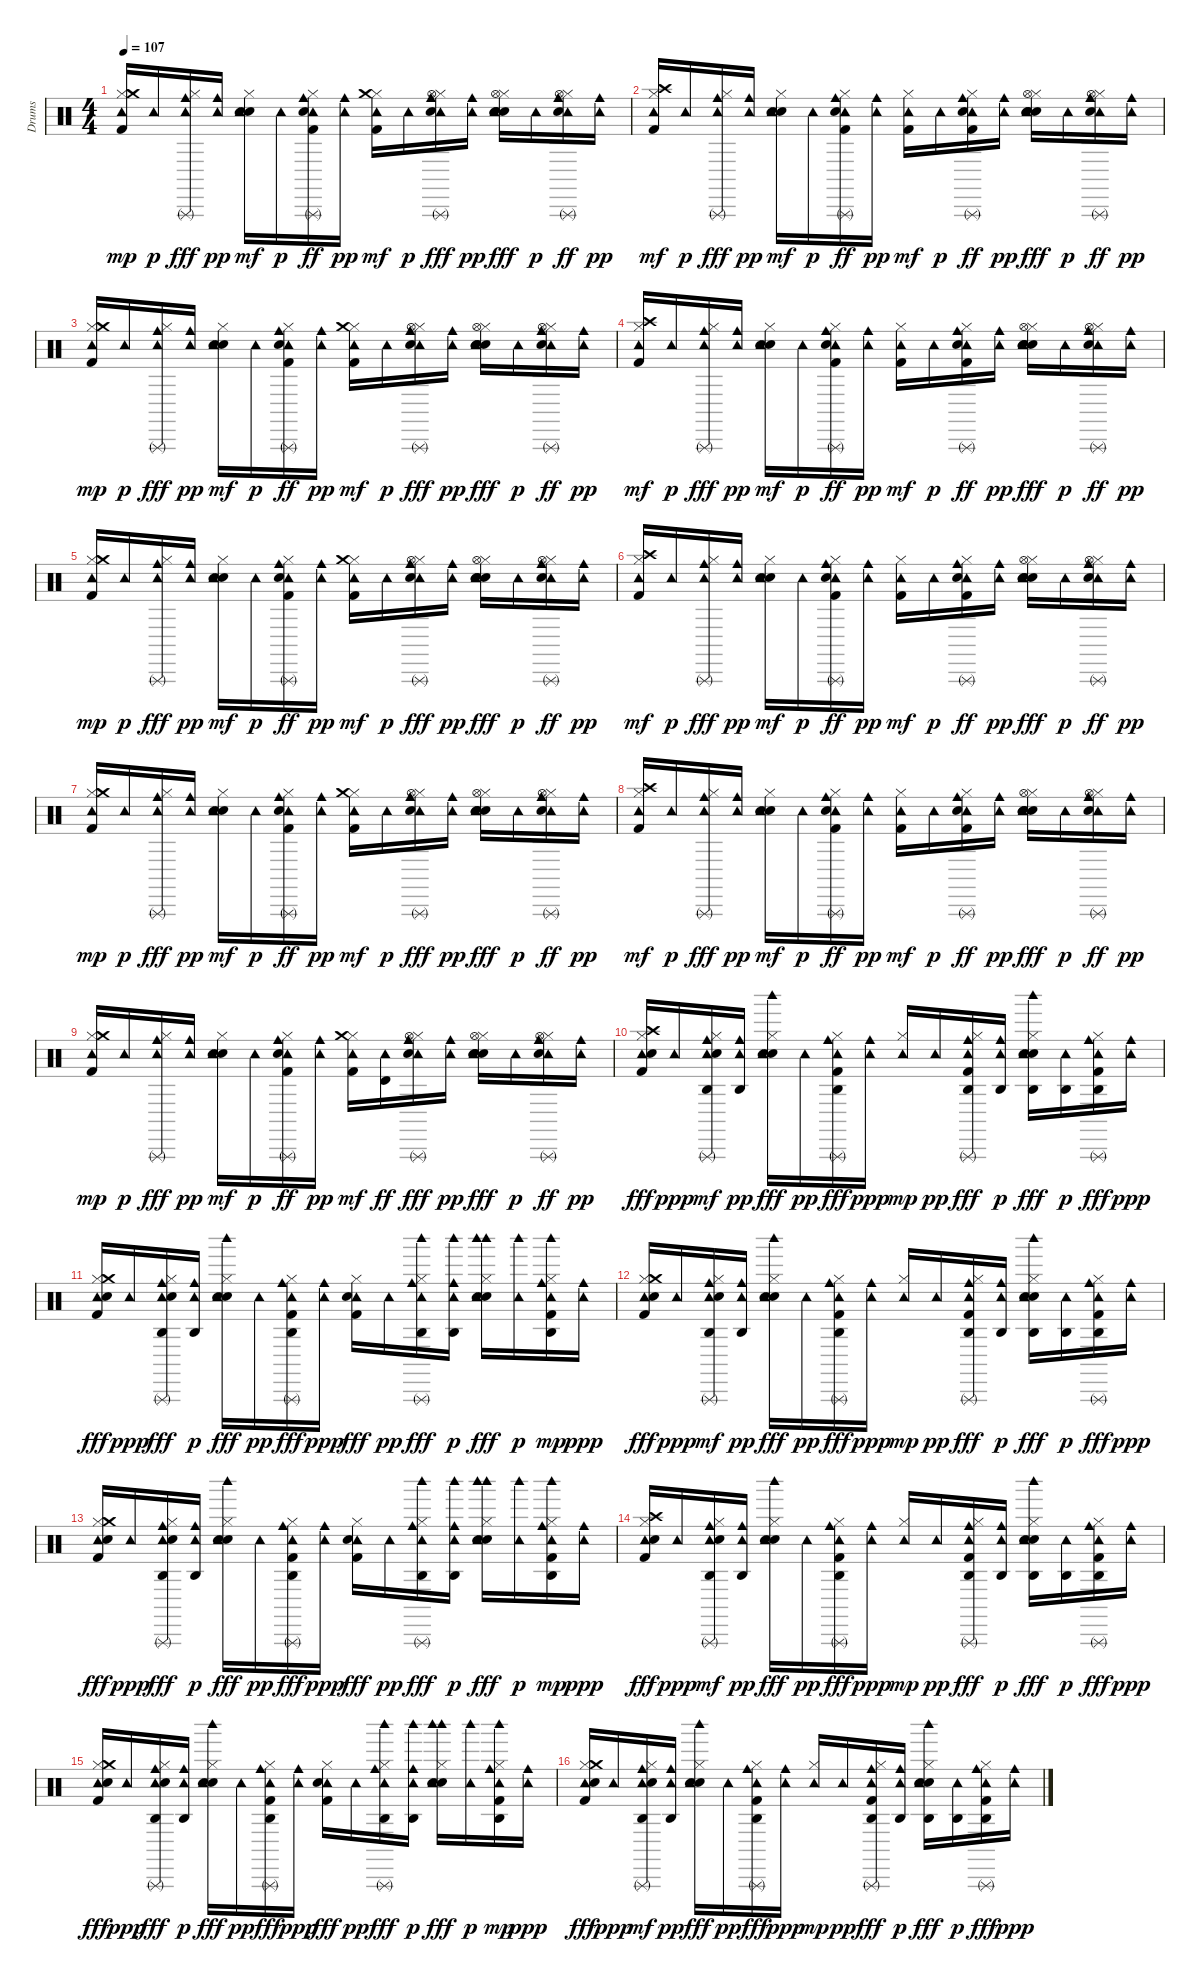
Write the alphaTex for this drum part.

\track ("Drums" "Drums") {instrument percussion}
\staff {score}
\articulation defaults
\ts (4 4)
\tempo 107
\clef neutral
\ks c
("Kick (hit) 2" "Hi-Hat (closed)" "Tambourine (hit)" "Crash medium (hit)").16{dy mp} "Tambourine (hit)".16{dy p} ("Hi-Hat (closed)" "Tambourine (hit)" "Cowbell medium (hit)" "Triangle (rnute)").16{dy fff} ("Tambourine (hit)" "Cowbell medium (hit)").16{dy pp} ("Hand Clap (hit)" "Electric Snare (hit)" "Hi-Hat (closed)" "Tambourine (hit)").16{dy mf} "Tambourine (hit)".16{dy p} ("Kick (hit) 2" "Hi-Hat (closed)" "Tambourine (hit)" "Cowbell medium (hit)" "Triangle (rnute)" "Metronome (bell)").16{dy ff} ("Tambourine (hit)" "Cowbell medium (hit)").16{dy pp} ("Kick (hit) 2" "Hi-Hat (closed)" "Tambourine (hit)" "Crash medium (hit)").16{dy mf} "Tambourine (hit)".16{dy p} ("Hi-Hat (closed)" "Tambourine (hit)" "Cowbell medium (hit)" "Triangle (rnute)" "Metronome (bell)" "Hi-Hat (open)").16{dy fff} ("Tambourine (hit)" "Cowbell medium (hit)").16{dy pp} ("Hand Clap (hit)" "Electric Snare (hit)" "Hi-Hat (closed)" "Tambourine (hit)" "Metronome (bell)" "Hi-Hat (open)").16{dy fff} "Tambourine (hit)".16{dy p} ("Hi-Hat (closed)" "Tambourine (hit)" "Cowbell medium (hit)" "Triangle (rnute)" "Metronome (bell)" "Hi-Hat (open)").16{dy ff} ("Tambourine (hit)" "Cowbell medium (hit)").16{dy pp} |
("Kick (hit) 2" "Hi-Hat (closed)" "Crash high (hit)" "Tambourine (hit)").16{dy mf} "Tambourine (hit)".16{dy p} ("Hi-Hat (closed)" "Tambourine (hit)" "Cowbell medium (hit)" "Triangle (rnute)").16{dy fff} ("Tambourine (hit)" "Cowbell medium (hit)").16{dy pp} ("Hand Clap (hit)" "Electric Snare (hit)" "Hi-Hat (closed)" "Tambourine (hit)").16{dy mf} "Tambourine (hit)".16{dy p} ("Kick (hit) 2" "Hi-Hat (closed)" "Tambourine (hit)" "Cowbell medium (hit)" "Triangle (rnute)" "Metronome (bell)").16{dy ff} ("Tambourine (hit)" "Cowbell medium (hit)").16{dy pp} ("Kick (hit) 2" "Hi-Hat (closed)" "Tambourine (hit)").16{dy mf} "Tambourine (hit)".16{dy p} ("Kick (hit) 2" "Hi-Hat (closed)" "Tambourine (hit)" "Cowbell medium (hit)" "Triangle (rnute)" "Metronome (bell)").16{dy ff} ("Tambourine (hit)" "Cowbell medium (hit)").16{dy pp} ("Hand Clap (hit)" "Electric Snare (hit)" "Hi-Hat (closed)" "Tambourine (hit)" "Metronome (bell)" "Hi-Hat (open)").16{dy fff} "Tambourine (hit)".16{dy p} ("Hi-Hat (closed)" "Tambourine (hit)" "Cowbell medium (hit)" "Triangle (rnute)" "Metronome (bell)" "Hi-Hat (open)").16{dy ff} ("Tambourine (hit)" "Cowbell medium (hit)").16{dy pp} |
("Kick (hit) 2" "Hi-Hat (closed)" "Tambourine (hit)" "Crash medium (hit)").16{dy mp} "Tambourine (hit)".16{dy p} ("Hi-Hat (closed)" "Tambourine (hit)" "Cowbell medium (hit)" "Triangle (rnute)").16{dy fff} ("Tambourine (hit)" "Cowbell medium (hit)").16{dy pp} ("Hand Clap (hit)" "Electric Snare (hit)" "Hi-Hat (closed)" "Tambourine (hit)").16{dy mf} "Tambourine (hit)".16{dy p} ("Kick (hit) 2" "Hi-Hat (closed)" "Tambourine (hit)" "Cowbell medium (hit)" "Triangle (rnute)" "Metronome (bell)").16{dy ff} ("Tambourine (hit)" "Cowbell medium (hit)").16{dy pp} ("Kick (hit) 2" "Hi-Hat (closed)" "Tambourine (hit)" "Crash medium (hit)").16{dy mf} "Tambourine (hit)".16{dy p} ("Hi-Hat (closed)" "Tambourine (hit)" "Cowbell medium (hit)" "Triangle (rnute)" "Metronome (bell)" "Hi-Hat (open)").16{dy fff} ("Tambourine (hit)" "Cowbell medium (hit)").16{dy pp} ("Hand Clap (hit)" "Electric Snare (hit)" "Hi-Hat (closed)" "Tambourine (hit)" "Metronome (bell)" "Hi-Hat (open)").16{dy fff} "Tambourine (hit)".16{dy p} ("Hi-Hat (closed)" "Tambourine (hit)" "Cowbell medium (hit)" "Triangle (rnute)" "Metronome (bell)" "Hi-Hat (open)").16{dy ff} ("Tambourine (hit)" "Cowbell medium (hit)").16{dy pp} |
("Kick (hit) 2" "Hi-Hat (closed)" "Crash high (hit)" "Tambourine (hit)").16{dy mf} "Tambourine (hit)".16{dy p} ("Hi-Hat (closed)" "Tambourine (hit)" "Cowbell medium (hit)" "Triangle (rnute)").16{dy fff} ("Tambourine (hit)" "Cowbell medium (hit)").16{dy pp} ("Hand Clap (hit)" "Electric Snare (hit)" "Hi-Hat (closed)" "Tambourine (hit)").16{dy mf} "Tambourine (hit)".16{dy p} ("Kick (hit) 2" "Hi-Hat (closed)" "Tambourine (hit)" "Cowbell medium (hit)" "Triangle (rnute)" "Metronome (bell)").16{dy ff} ("Tambourine (hit)" "Cowbell medium (hit)").16{dy pp} ("Kick (hit) 2" "Hi-Hat (closed)" "Tambourine (hit)").16{dy mf} "Tambourine (hit)".16{dy p} ("Kick (hit) 2" "Hi-Hat (closed)" "Tambourine (hit)" "Cowbell medium (hit)" "Triangle (rnute)" "Metronome (bell)").16{dy ff} ("Tambourine (hit)" "Cowbell medium (hit)").16{dy pp} ("Hand Clap (hit)" "Electric Snare (hit)" "Hi-Hat (closed)" "Tambourine (hit)" "Metronome (bell)" "Hi-Hat (open)").16{dy fff} "Tambourine (hit)".16{dy p} ("Hi-Hat (closed)" "Tambourine (hit)" "Cowbell medium (hit)" "Triangle (rnute)" "Metronome (bell)" "Hi-Hat (open)").16{dy ff} ("Tambourine (hit)" "Cowbell medium (hit)").16{dy pp} |
("Kick (hit) 2" "Hi-Hat (closed)" "Tambourine (hit)" "Crash medium (hit)").16{dy mp} "Tambourine (hit)".16{dy p} ("Hi-Hat (closed)" "Tambourine (hit)" "Cowbell medium (hit)" "Triangle (rnute)").16{dy fff} ("Tambourine (hit)" "Cowbell medium (hit)").16{dy pp} ("Hand Clap (hit)" "Electric Snare (hit)" "Hi-Hat (closed)" "Tambourine (hit)").16{dy mf} "Tambourine (hit)".16{dy p} ("Kick (hit) 2" "Hi-Hat (closed)" "Tambourine (hit)" "Cowbell medium (hit)" "Triangle (rnute)" "Metronome (bell)").16{dy ff} ("Tambourine (hit)" "Cowbell medium (hit)").16{dy pp} ("Kick (hit) 2" "Hi-Hat (closed)" "Tambourine (hit)" "Crash medium (hit)").16{dy mf} "Tambourine (hit)".16{dy p} ("Hi-Hat (closed)" "Tambourine (hit)" "Cowbell medium (hit)" "Triangle (rnute)" "Metronome (bell)" "Hi-Hat (open)").16{dy fff} ("Tambourine (hit)" "Cowbell medium (hit)").16{dy pp} ("Hand Clap (hit)" "Electric Snare (hit)" "Hi-Hat (closed)" "Tambourine (hit)" "Metronome (bell)" "Hi-Hat (open)").16{dy fff} "Tambourine (hit)".16{dy p} ("Hi-Hat (closed)" "Tambourine (hit)" "Cowbell medium (hit)" "Triangle (rnute)" "Metronome (bell)" "Hi-Hat (open)").16{dy ff} ("Tambourine (hit)" "Cowbell medium (hit)").16{dy pp} |
("Kick (hit) 2" "Hi-Hat (closed)" "Crash high (hit)" "Tambourine (hit)").16{dy mf} "Tambourine (hit)".16{dy p} ("Hi-Hat (closed)" "Tambourine (hit)" "Cowbell medium (hit)" "Triangle (rnute)").16{dy fff} ("Tambourine (hit)" "Cowbell medium (hit)").16{dy pp} ("Hand Clap (hit)" "Electric Snare (hit)" "Hi-Hat (closed)" "Tambourine (hit)").16{dy mf} "Tambourine (hit)".16{dy p} ("Kick (hit) 2" "Hi-Hat (closed)" "Tambourine (hit)" "Cowbell medium (hit)" "Triangle (rnute)" "Metronome (bell)").16{dy ff} ("Tambourine (hit)" "Cowbell medium (hit)").16{dy pp} ("Kick (hit) 2" "Hi-Hat (closed)" "Tambourine (hit)").16{dy mf} "Tambourine (hit)".16{dy p} ("Kick (hit) 2" "Hi-Hat (closed)" "Tambourine (hit)" "Cowbell medium (hit)" "Triangle (rnute)" "Metronome (bell)").16{dy ff} ("Tambourine (hit)" "Cowbell medium (hit)").16{dy pp} ("Hand Clap (hit)" "Electric Snare (hit)" "Hi-Hat (closed)" "Tambourine (hit)" "Metronome (bell)" "Hi-Hat (open)").16{dy fff} "Tambourine (hit)".16{dy p} ("Hi-Hat (closed)" "Tambourine (hit)" "Cowbell medium (hit)" "Triangle (rnute)" "Metronome (bell)" "Hi-Hat (open)").16{dy ff} ("Tambourine (hit)" "Cowbell medium (hit)").16{dy pp} |
("Kick (hit) 2" "Hi-Hat (closed)" "Tambourine (hit)" "Crash medium (hit)").16{dy mp} "Tambourine (hit)".16{dy p} ("Hi-Hat (closed)" "Tambourine (hit)" "Cowbell medium (hit)" "Triangle (rnute)").16{dy fff} ("Tambourine (hit)" "Cowbell medium (hit)").16{dy pp} ("Hand Clap (hit)" "Electric Snare (hit)" "Hi-Hat (closed)" "Tambourine (hit)").16{dy mf} "Tambourine (hit)".16{dy p} ("Kick (hit) 2" "Hi-Hat (closed)" "Tambourine (hit)" "Cowbell medium (hit)" "Triangle (rnute)" "Metronome (bell)").16{dy ff} ("Tambourine (hit)" "Cowbell medium (hit)").16{dy pp} ("Kick (hit) 2" "Hi-Hat (closed)" "Tambourine (hit)" "Crash medium (hit)").16{dy mf} "Tambourine (hit)".16{dy p} ("Hi-Hat (closed)" "Tambourine (hit)" "Cowbell medium (hit)" "Triangle (rnute)" "Metronome (bell)" "Hi-Hat (open)").16{dy fff} ("Tambourine (hit)" "Cowbell medium (hit)").16{dy pp} ("Hand Clap (hit)" "Electric Snare (hit)" "Hi-Hat (closed)" "Tambourine (hit)" "Metronome (bell)" "Hi-Hat (open)").16{dy fff} "Tambourine (hit)".16{dy p} ("Hi-Hat (closed)" "Tambourine (hit)" "Cowbell medium (hit)" "Triangle (rnute)" "Metronome (bell)" "Hi-Hat (open)").16{dy ff} ("Tambourine (hit)" "Cowbell medium (hit)").16{dy pp} |
("Kick (hit) 2" "Hi-Hat (closed)" "Crash high (hit)" "Tambourine (hit)").16{dy mf} "Tambourine (hit)".16{dy p} ("Hi-Hat (closed)" "Tambourine (hit)" "Cowbell medium (hit)" "Triangle (rnute)").16{dy fff} ("Tambourine (hit)" "Cowbell medium (hit)").16{dy pp} ("Hand Clap (hit)" "Electric Snare (hit)" "Hi-Hat (closed)" "Tambourine (hit)").16{dy mf} "Tambourine (hit)".16{dy p} ("Kick (hit) 2" "Hi-Hat (closed)" "Tambourine (hit)" "Cowbell medium (hit)" "Triangle (rnute)" "Metronome (bell)").16{dy ff} ("Tambourine (hit)" "Cowbell medium (hit)").16{dy pp} ("Kick (hit) 2" "Hi-Hat (closed)" "Tambourine (hit)").16{dy mf} "Tambourine (hit)".16{dy p} ("Kick (hit) 2" "Hi-Hat (closed)" "Tambourine (hit)" "Cowbell medium (hit)" "Triangle (rnute)" "Metronome (bell)").16{dy ff} ("Tambourine (hit)" "Cowbell medium (hit)").16{dy pp} ("Hand Clap (hit)" "Electric Snare (hit)" "Hi-Hat (closed)" "Tambourine (hit)" "Metronome (bell)" "Hi-Hat (open)").16{dy fff} "Tambourine (hit)".16{dy p} ("Hi-Hat (closed)" "Tambourine (hit)" "Cowbell medium (hit)" "Triangle (rnute)" "Metronome (bell)" "Hi-Hat (open)").16{dy ff} ("Tambourine (hit)" "Cowbell medium (hit)").16{dy pp} |
("Kick (hit) 2" "Hi-Hat (closed)" "Tambourine (hit)" "Crash medium (hit)").16{dy mp} "Tambourine (hit)".16{dy p} ("Hi-Hat (closed)" "Tambourine (hit)" "Cowbell medium (hit)" "Triangle (rnute)").16{dy fff} ("Tambourine (hit)" "Cowbell medium (hit)").16{dy pp} ("Hand Clap (hit)" "Electric Snare (hit)" "Hi-Hat (closed)" "Tambourine (hit)").16{dy mf} "Tambourine (hit)".16{dy p} ("Kick (hit) 2" "Hi-Hat (closed)" "Tambourine (hit)" "Cowbell medium (hit)" "Triangle (rnute)" "Metronome (bell)").16{dy ff} ("Tambourine (hit)" "Cowbell medium (hit)").16{dy pp} ("Kick (hit) 2" "Hi-Hat (closed)" "Tambourine (hit)" "Crash medium (hit)").16{dy mf} ("Tambourine (hit)" "Timbale high (hit)").16{dy ff} ("Hi-Hat (closed)" "Tambourine (hit)" "Cowbell medium (hit)" "Triangle (rnute)" "Metronome (bell)" "Hi-Hat (open)").16{dy fff} ("Tambourine (hit)" "Cowbell medium (hit)").16{dy pp} ("Hand Clap (hit)" "Electric Snare (hit)" "Hi-Hat (closed)" "Tambourine (hit)" "Metronome (bell)" "Hi-Hat (open)").16{dy fff} "Tambourine (hit)".16{dy p} ("Hi-Hat (closed)" "Tambourine (hit)" "Cowbell medium (hit)" "Triangle (rnute)" "Metronome (bell)" "Hi-Hat (open)").16{dy ff} ("Tambourine (hit)" "Cowbell medium (hit)").16{dy pp} |
("Kick (hit) 2" "Hi-Hat (closed)" "Crash high (hit)" "Tambourine (hit)" "Snare (hit)").16{dy fff} "Tambourine (hit)".16{dy ppp} ("Hi-Hat (closed)" "Tambourine (hit)" "Cowbell medium (hit)" "Agogo high (hit)" "Triangle (rnute)" "Snare (hit)").16{dy mf} ("Tambourine (hit)" "Cowbell medium (hit)" "Agogo high (hit)").16{dy pp} ("Hand Clap (hit)" "Electric Snare (hit)" "Hi-Hat (closed)" "Tambourine (hit)" "Woodblock high (hit)").16{dy fff} "Tambourine (hit)".16{dy pp} ("Kick (hit) 2" "Hi-Hat (closed)" "Tambourine (hit)" "Cowbell medium (hit)" "Agogo high (hit)" "Triangle (rnute)").16{dy fff} ("Tambourine (hit)" "Cowbell medium (hit)").16{dy ppp} ("Hi-Hat (closed)" "Tambourine (hit)").16{dy mp} "Tambourine (hit)".16{dy pp} ("Kick (hit) 2" "Hi-Hat (closed)" "Tambourine (hit)" "Cowbell medium (hit)" "Agogo high (hit)" "Triangle (rnute)").16{dy fff} ("Tambourine (hit)" "Cowbell medium (hit)" "Agogo high (hit)").16{dy p} ("Hand Clap (hit)" "Electric Snare (hit)" "Hi-Hat (closed)" "Tambourine (hit)" "Agogo high (hit)" "Woodblock high (hit)").16{dy fff} ("Tambourine (hit)" "Agogo high (hit)").16{dy p} ("Kick (hit) 2" "Hi-Hat (closed)" "Tambourine (hit)" "Cowbell medium (hit)" "Agogo high (hit)" "Triangle (rnute)").16{dy fff} ("Tambourine (hit)" "Cowbell medium (hit)").16{dy ppp} |
("Kick (hit) 2" "Hi-Hat (closed)" "Tambourine (hit)" "Crash medium (hit)" "Snare (hit)").16{dy fff} "Tambourine (hit)".16{dy ppp} ("Hi-Hat (closed)" "Tambourine (hit)" "Cowbell medium (hit)" "Agogo high (hit)" "Triangle (rnute)" "Snare (hit)").16{dy fff} ("Tambourine (hit)" "Cowbell medium (hit)" "Agogo high (hit)").16{dy p} ("Hand Clap (hit)" "Electric Snare (hit)" "Hi-Hat (closed)" "Tambourine (hit)" "Woodblock high (hit)").16{dy fff} "Tambourine (hit)".16{dy pp} ("Kick (hit) 2" "Hi-Hat (closed)" "Tambourine (hit)" "Cowbell medium (hit)" "Agogo high (hit)" "Triangle (rnute)").16{dy fff} ("Tambourine (hit)" "Cowbell medium (hit)").16{dy ppp} ("Kick (hit) 2" "Hi-Hat (closed)" "Tambourine (hit)" "Snare (hit)").16{dy fff} "Tambourine (hit)".16{dy pp} ("Hi-Hat (closed)" "Tambourine (hit)" "Cowbell medium (hit)" "Agogo high (hit)" "Woodblock high (hit)" "Triangle (rnute)").16{dy fff} ("Tambourine (hit)" "Cowbell medium (hit)" "Agogo high (hit)" "Woodblock high (hit)").16{dy p} ("Hand Clap (hit)" "Electric Snare (hit)" "Hi-Hat (closed)" "Tambourine (hit)" "Woodblock high (hit)" "Woodblock high (hit)").16{dy fff} ("Tambourine (hit)" "Woodblock high (hit)").16{dy p} ("Kick (hit) 2" "Hi-Hat (closed)" "Tambourine (hit)" "Cowbell medium (hit)" "Agogo high (hit)" "Woodblock high (hit)").16{dy mp} ("Tambourine (hit)" "Cowbell medium (hit)").16{dy ppp} |
("Kick (hit) 2" "Hi-Hat (closed)" "Tambourine (hit)" "Crash medium (hit)" "Snare (hit)").16{dy fff} "Tambourine (hit)".16{dy ppp} ("Hi-Hat (closed)" "Tambourine (hit)" "Cowbell medium (hit)" "Agogo high (hit)" "Triangle (rnute)" "Snare (hit)").16{dy mf} ("Tambourine (hit)" "Cowbell medium (hit)" "Agogo high (hit)").16{dy pp} ("Hand Clap (hit)" "Electric Snare (hit)" "Hi-Hat (closed)" "Tambourine (hit)" "Woodblock high (hit)").16{dy fff} "Tambourine (hit)".16{dy pp} ("Kick (hit) 2" "Hi-Hat (closed)" "Tambourine (hit)" "Cowbell medium (hit)" "Agogo high (hit)" "Triangle (rnute)").16{dy fff} ("Tambourine (hit)" "Cowbell medium (hit)").16{dy ppp} ("Hi-Hat (closed)" "Tambourine (hit)").16{dy mp} "Tambourine (hit)".16{dy pp} ("Kick (hit) 2" "Hi-Hat (closed)" "Tambourine (hit)" "Cowbell medium (hit)" "Agogo high (hit)" "Triangle (rnute)").16{dy fff} ("Tambourine (hit)" "Cowbell medium (hit)" "Agogo high (hit)").16{dy p} ("Hand Clap (hit)" "Electric Snare (hit)" "Hi-Hat (closed)" "Tambourine (hit)" "Agogo high (hit)" "Woodblock high (hit)").16{dy fff} ("Tambourine (hit)" "Agogo high (hit)").16{dy p} ("Kick (hit) 2" "Hi-Hat (closed)" "Tambourine (hit)" "Cowbell medium (hit)" "Agogo high (hit)" "Triangle (rnute)").16{dy fff} ("Tambourine (hit)" "Cowbell medium (hit)").16{dy ppp} |
("Kick (hit) 2" "Hi-Hat (closed)" "Tambourine (hit)" "Crash medium (hit)" "Snare (hit)").16{dy fff} "Tambourine (hit)".16{dy ppp} ("Hi-Hat (closed)" "Tambourine (hit)" "Cowbell medium (hit)" "Agogo high (hit)" "Triangle (rnute)" "Snare (hit)").16{dy fff} ("Tambourine (hit)" "Cowbell medium (hit)" "Agogo high (hit)").16{dy p} ("Hand Clap (hit)" "Electric Snare (hit)" "Hi-Hat (closed)" "Tambourine (hit)" "Woodblock high (hit)").16{dy fff} "Tambourine (hit)".16{dy pp} ("Kick (hit) 2" "Hi-Hat (closed)" "Tambourine (hit)" "Cowbell medium (hit)" "Agogo high (hit)" "Triangle (rnute)").16{dy fff} ("Tambourine (hit)" "Cowbell medium (hit)").16{dy ppp} ("Kick (hit) 2" "Hi-Hat (closed)" "Tambourine (hit)" "Snare (hit)").16{dy fff} "Tambourine (hit)".16{dy pp} ("Hi-Hat (closed)" "Tambourine (hit)" "Cowbell medium (hit)" "Agogo high (hit)" "Woodblock high (hit)" "Triangle (rnute)").16{dy fff} ("Tambourine (hit)" "Cowbell medium (hit)" "Agogo high (hit)" "Woodblock high (hit)").16{dy p} ("Hand Clap (hit)" "Electric Snare (hit)" "Hi-Hat (closed)" "Tambourine (hit)" "Woodblock high (hit)" "Woodblock high (hit)").16{dy fff} ("Tambourine (hit)" "Woodblock high (hit)").16{dy p} ("Kick (hit) 2" "Hi-Hat (closed)" "Tambourine (hit)" "Cowbell medium (hit)" "Agogo high (hit)" "Woodblock high (hit)").16{dy mp} ("Tambourine (hit)" "Cowbell medium (hit)").16{dy ppp} |
("Kick (hit) 2" "Hi-Hat (closed)" "Crash high (hit)" "Tambourine (hit)" "Snare (hit)").16{dy fff} "Tambourine (hit)".16{dy ppp} ("Hi-Hat (closed)" "Tambourine (hit)" "Cowbell medium (hit)" "Agogo high (hit)" "Triangle (rnute)" "Snare (hit)").16{dy mf} ("Tambourine (hit)" "Cowbell medium (hit)" "Agogo high (hit)").16{dy pp} ("Hand Clap (hit)" "Electric Snare (hit)" "Hi-Hat (closed)" "Tambourine (hit)" "Woodblock high (hit)").16{dy fff} "Tambourine (hit)".16{dy pp} ("Kick (hit) 2" "Hi-Hat (closed)" "Tambourine (hit)" "Cowbell medium (hit)" "Agogo high (hit)" "Triangle (rnute)").16{dy fff} ("Tambourine (hit)" "Cowbell medium (hit)").16{dy ppp} ("Hi-Hat (closed)" "Tambourine (hit)").16{dy mp} "Tambourine (hit)".16{dy pp} ("Kick (hit) 2" "Hi-Hat (closed)" "Tambourine (hit)" "Cowbell medium (hit)" "Agogo high (hit)" "Triangle (rnute)").16{dy fff} ("Tambourine (hit)" "Cowbell medium (hit)" "Agogo high (hit)").16{dy p} ("Hand Clap (hit)" "Electric Snare (hit)" "Hi-Hat (closed)" "Tambourine (hit)" "Agogo high (hit)" "Woodblock high (hit)").16{dy fff} ("Tambourine (hit)" "Agogo high (hit)").16{dy p} ("Kick (hit) 2" "Hi-Hat (closed)" "Tambourine (hit)" "Cowbell medium (hit)" "Agogo high (hit)" "Triangle (rnute)").16{dy fff} ("Tambourine (hit)" "Cowbell medium (hit)").16{dy ppp} |
("Kick (hit) 2" "Hi-Hat (closed)" "Tambourine (hit)" "Crash medium (hit)" "Snare (hit)").16{dy fff} "Tambourine (hit)".16{dy ppp} ("Hi-Hat (closed)" "Tambourine (hit)" "Cowbell medium (hit)" "Agogo high (hit)" "Triangle (rnute)" "Snare (hit)").16{dy fff} ("Tambourine (hit)" "Cowbell medium (hit)" "Agogo high (hit)").16{dy p} ("Hand Clap (hit)" "Electric Snare (hit)" "Hi-Hat (closed)" "Tambourine (hit)" "Woodblock high (hit)").16{dy fff} "Tambourine (hit)".16{dy pp} ("Kick (hit) 2" "Hi-Hat (closed)" "Tambourine (hit)" "Cowbell medium (hit)" "Agogo high (hit)" "Triangle (rnute)").16{dy fff} ("Tambourine (hit)" "Cowbell medium (hit)").16{dy ppp} ("Kick (hit) 2" "Hi-Hat (closed)" "Tambourine (hit)" "Snare (hit)").16{dy fff} "Tambourine (hit)".16{dy pp} ("Hi-Hat (closed)" "Tambourine (hit)" "Cowbell medium (hit)" "Agogo high (hit)" "Woodblock high (hit)" "Triangle (rnute)").16{dy fff} ("Tambourine (hit)" "Cowbell medium (hit)" "Agogo high (hit)" "Woodblock high (hit)").16{dy p} ("Hand Clap (hit)" "Electric Snare (hit)" "Hi-Hat (closed)" "Tambourine (hit)" "Woodblock high (hit)" "Woodblock high (hit)").16{dy fff} ("Tambourine (hit)" "Woodblock high (hit)").16{dy p} ("Kick (hit) 2" "Hi-Hat (closed)" "Tambourine (hit)" "Cowbell medium (hit)" "Agogo high (hit)" "Woodblock high (hit)").16{dy mp} ("Tambourine (hit)" "Cowbell medium (hit)").16{dy ppp} |
("Kick (hit) 2" "Hi-Hat (closed)" "Tambourine (hit)" "Crash medium (hit)" "Snare (hit)").16{dy fff} "Tambourine (hit)".16{dy ppp} ("Hi-Hat (closed)" "Tambourine (hit)" "Cowbell medium (hit)" "Agogo high (hit)" "Triangle (rnute)" "Snare (hit)").16{dy mf} ("Tambourine (hit)" "Cowbell medium (hit)" "Agogo high (hit)").16{dy pp} ("Hand Clap (hit)" "Electric Snare (hit)" "Hi-Hat (closed)" "Tambourine (hit)" "Woodblock high (hit)").16{dy fff} "Tambourine (hit)".16{dy pp} ("Kick (hit) 2" "Hi-Hat (closed)" "Tambourine (hit)" "Cowbell medium (hit)" "Agogo high (hit)" "Triangle (rnute)").16{dy fff} ("Tambourine (hit)" "Cowbell medium (hit)").16{dy ppp} ("Hi-Hat (closed)" "Tambourine (hit)").16{dy mp} "Tambourine (hit)".16{dy pp} ("Kick (hit) 2" "Hi-Hat (closed)" "Tambourine (hit)" "Cowbell medium (hit)" "Agogo high (hit)" "Triangle (rnute)").16{dy fff} ("Tambourine (hit)" "Cowbell medium (hit)" "Agogo high (hit)").16{dy p} ("Hand Clap (hit)" "Electric Snare (hit)" "Hi-Hat (closed)" "Tambourine (hit)" "Agogo high (hit)" "Woodblock high (hit)").16{dy fff} ("Tambourine (hit)" "Agogo high (hit)").16{dy p} ("Kick (hit) 2" "Hi-Hat (closed)" "Tambourine (hit)" "Cowbell medium (hit)" "Agogo high (hit)" "Triangle (rnute)").16{dy fff} ("Tambourine (hit)" "Cowbell medium (hit)").16{dy ppp}
